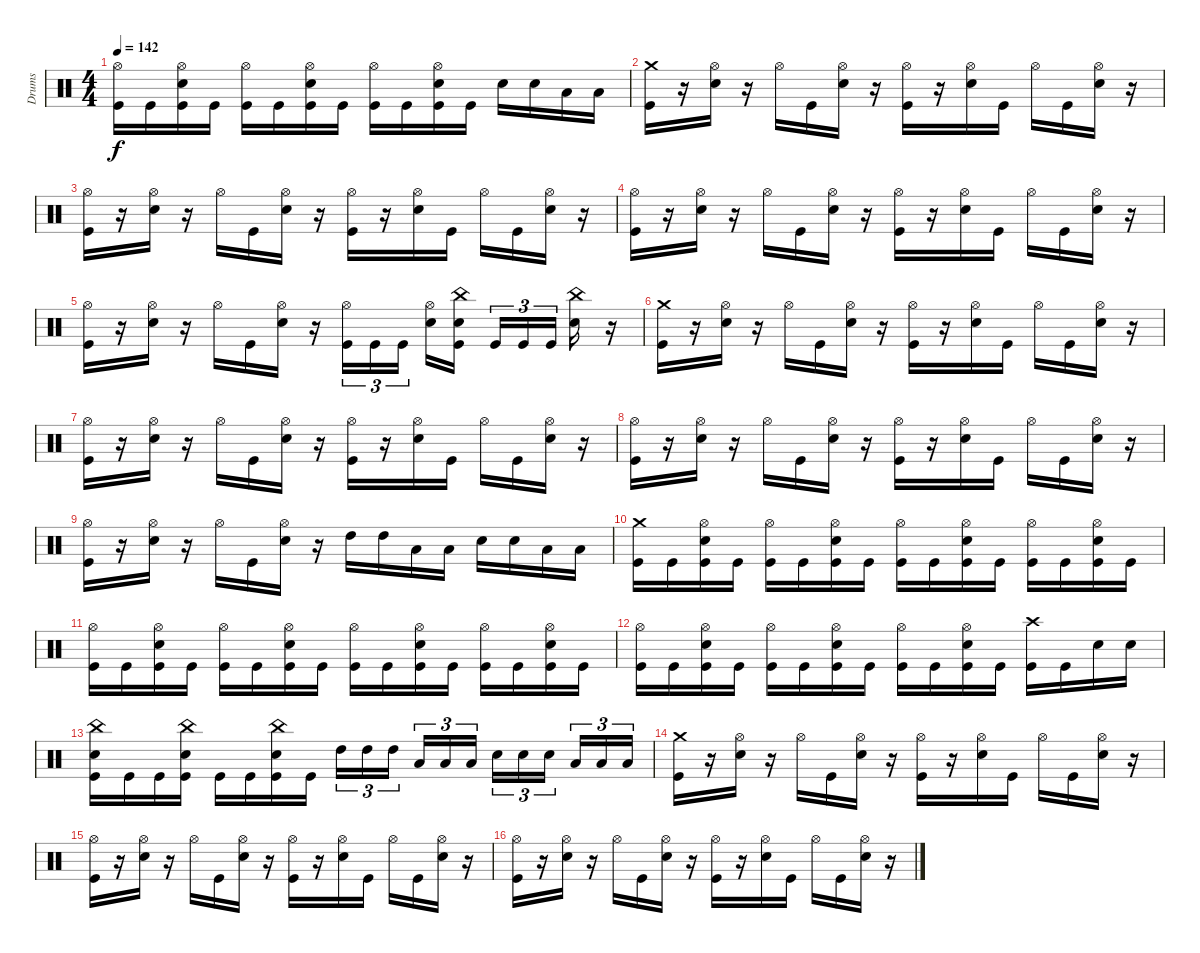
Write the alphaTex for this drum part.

\track ("Drums" "Drums") {instrument percussion}
\staff {score}
\articulation defaults
\ts (4 4)
\tempo 142
\clef neutral
\ks c
("Hi-Hat (open)" "Kick (hit)").16{dy f} "Kick (hit)".16 ("Electric Snare (hit)" "Hi-Hat (open)" "Kick (hit)").16 "Kick (hit)".16 ("Hi-Hat (open)" "Kick (hit)").16 "Kick (hit)".16 ("Electric Snare (hit)" "Hi-Hat (open)" "Kick (hit)").16 "Kick (hit)".16 ("Hi-Hat (open)" "Kick (hit)").16 "Kick (hit)".16 ("Electric Snare (hit)" "Hi-Hat (open)" "Kick (hit)").16 "Kick (hit)".16 "Electric Snare (hit)".16 "Electric Snare (hit)".16 "Low Tom (hit)".16 "Low Tom (hit)".16 |
("Kick (hit)" "Crash medium (hit)").16 r.16 ("Electric Snare (hit)" "Hi-Hat (open)").16 r.16 "Hi-Hat (open)".16 "Kick (hit)".16 ("Electric Snare (hit)" "Hi-Hat (open)").16 r.16 ("Kick (hit)" "Hi-Hat (open)").16 r.16 ("Electric Snare (hit)" "Hi-Hat (open)").16 "Kick (hit)".16 "Hi-Hat (open)".16 "Kick (hit)".16 ("Electric Snare (hit)" "Hi-Hat (open)").16 r.16 |
("Hi-Hat (open)" "Kick (hit)").16 r.16 ("Hi-Hat (open)" "Electric Snare (hit)").16 r.16 "Hi-Hat (open)".16 "Kick (hit)".16 ("Hi-Hat (open)" "Electric Snare (hit)").16 r.16 ("Kick (hit)" "Hi-Hat (open)").16 r.16 ("Hi-Hat (open)" "Electric Snare (hit)").16 "Kick (hit)".16 "Hi-Hat (open)".16 "Kick (hit)".16 ("Hi-Hat (open)" "Electric Snare (hit)").16 r.16 |
("Kick (hit)" "Hi-Hat (open)").16 r.16 ("Electric Snare (hit)" "Hi-Hat (open)").16 r.16 "Hi-Hat (open)".16 "Kick (hit)".16 ("Electric Snare (hit)" "Hi-Hat (open)").16 r.16 ("Kick (hit)" "Hi-Hat (open)").16 r.16 ("Electric Snare (hit)" "Hi-Hat (open)").16 "Kick (hit)".16 "Hi-Hat (open)".16 "Kick (hit)".16 ("Electric Snare (hit)" "Hi-Hat (open)").16 r.16 |
("Hi-Hat (open)" "Kick (hit)").16 r.16 ("Hi-Hat (open)" "Electric Snare (hit)").16 r.16 "Hi-Hat (open)".16 "Kick (hit)".16 ("Hi-Hat (open)" "Electric Snare (hit)").16 r.16 ("Kick (hit)" "Hi-Hat (open)").16{tu (3 2)} "Kick (hit)".16{tu (3 2)} "Kick (hit)".16{tu (3 2)} ("Hi-Hat (open)" "Electric Snare (hit)").16 ("Kick (hit)" "China (hit)" "Electric Snare (hit)").16 "Kick (hit)".16{tu (3 2)} "Kick (hit)".16{tu (3 2)} "Kick (hit)".16{tu (3 2)} ("China (hit)" "Electric Snare (hit)").16 r.16 |
("Kick (hit)" "Crash medium (hit)").16 r.16 ("Electric Snare (hit)" "Hi-Hat (open)").16 r.16 "Hi-Hat (open)".16 "Kick (hit)".16 ("Electric Snare (hit)" "Hi-Hat (open)").16 r.16 ("Kick (hit)" "Hi-Hat (open)").16 r.16 ("Electric Snare (hit)" "Hi-Hat (open)").16 "Kick (hit)".16 "Hi-Hat (open)".16 "Kick (hit)".16 ("Electric Snare (hit)" "Hi-Hat (open)").16 r.16 |
("Hi-Hat (open)" "Kick (hit)").16 r.16 ("Hi-Hat (open)" "Electric Snare (hit)").16 r.16 "Hi-Hat (open)".16 "Kick (hit)".16 ("Hi-Hat (open)" "Electric Snare (hit)").16 r.16 ("Kick (hit)" "Hi-Hat (open)").16 r.16 ("Hi-Hat (open)" "Electric Snare (hit)").16 "Kick (hit)".16 "Hi-Hat (open)".16 "Kick (hit)".16 ("Hi-Hat (open)" "Electric Snare (hit)").16 r.16 |
("Kick (hit)" "Hi-Hat (open)").16 r.16 ("Electric Snare (hit)" "Hi-Hat (open)").16 r.16 "Hi-Hat (open)".16 "Kick (hit)".16 ("Electric Snare (hit)" "Hi-Hat (open)").16 r.16 ("Kick (hit)" "Hi-Hat (open)").16 r.16 ("Electric Snare (hit)" "Hi-Hat (open)").16 "Kick (hit)".16 "Hi-Hat (open)".16 "Kick (hit)".16 ("Electric Snare (hit)" "Hi-Hat (open)").16 r.16 |
("Hi-Hat (open)" "Kick (hit)").16 r.16 ("Hi-Hat (open)" "Electric Snare (hit)").16 r.16 "Hi-Hat (open)".16 "Kick (hit)".16 ("Hi-Hat (open)" "Electric Snare (hit)").16 r.16 "High Tom (hit)".16 "High Tom (hit)".16 "Low Tom (hit)".16 "Low Tom (hit)".16 "Electric Snare (hit)".16 "Electric Snare (hit)".16 "Low Tom (hit)".16 "Low Tom (hit)".16 |
("Crash medium (hit)" "Kick (hit)").16 "Kick (hit)".16 ("Electric Snare (hit)" "Hi-Hat (open)" "Kick (hit)").16 "Kick (hit)".16 ("Hi-Hat (open)" "Kick (hit)").16 "Kick (hit)".16 ("Electric Snare (hit)" "Hi-Hat (open)" "Kick (hit)").16 "Kick (hit)".16 ("Hi-Hat (open)" "Kick (hit)").16 "Kick (hit)".16 ("Electric Snare (hit)" "Hi-Hat (open)" "Kick (hit)").16 "Kick (hit)".16 ("Hi-Hat (open)" "Kick (hit)").16 "Kick (hit)".16 ("Electric Snare (hit)" "Hi-Hat (open)" "Kick (hit)").16 "Kick (hit)".16 |
("Hi-Hat (open)" "Kick (hit)").16 "Kick (hit)".16 ("Electric Snare (hit)" "Hi-Hat (open)" "Kick (hit)").16 "Kick (hit)".16 ("Hi-Hat (open)" "Kick (hit)").16 "Kick (hit)".16 ("Electric Snare (hit)" "Hi-Hat (open)" "Kick (hit)").16 "Kick (hit)".16 ("Hi-Hat (open)" "Kick (hit)").16 "Kick (hit)".16 ("Electric Snare (hit)" "Hi-Hat (open)" "Kick (hit)").16 "Kick (hit)".16 ("Hi-Hat (open)" "Kick (hit)").16 "Kick (hit)".16 ("Electric Snare (hit)" "Hi-Hat (open)" "Kick (hit)").16 "Kick (hit)".16 |
("Hi-Hat (open)" "Kick (hit)").16 "Kick (hit)".16 ("Electric Snare (hit)" "Hi-Hat (open)" "Kick (hit)").16 "Kick (hit)".16 ("Hi-Hat (open)" "Kick (hit)").16 "Kick (hit)".16 ("Electric Snare (hit)" "Hi-Hat (open)" "Kick (hit)").16 "Kick (hit)".16 ("Hi-Hat (open)" "Kick (hit)").16 "Kick (hit)".16 ("Electric Snare (hit)" "Hi-Hat (open)" "Kick (hit)").16 "Kick (hit)".16 ("Crash high (hit)" "Kick (hit)").16 "Kick (hit)".16 "Electric Snare (hit)".16 "Electric Snare (hit)".16 |
("Electric Snare (hit)" "China (hit)" "Kick (hit)").16 "Kick (hit)".16 "Kick (hit)".16 ("China (hit)" "Electric Snare (hit)" "Kick (hit)").16 "Kick (hit)".16 "Kick (hit)".16 ("China (hit)" "Electric Snare (hit)" "Kick (hit)").16 "Kick (hit)".16 "High Tom (hit)".16{tu (3 2)} "High Tom (hit)".16{tu (3 2)} "High Tom (hit)".16{tu (3 2)} "Low Tom (hit)".16{tu (3 2)} "Low Tom (hit)".16{tu (3 2)} "Low Tom (hit)".16{tu (3 2)} "Electric Snare (hit)".16{tu (3 2)} "Electric Snare (hit)".16{tu (3 2)} "Electric Snare (hit)".16{tu (3 2)} "Low Tom (hit)".16{tu (3 2)} "Low Tom (hit)".16{tu (3 2)} "Low Tom (hit)".16{tu (3 2)} |
("Kick (hit)" "Crash medium (hit)").16 r.16 ("Electric Snare (hit)" "Hi-Hat (open)").16 r.16 "Hi-Hat (open)".16 "Kick (hit)".16 ("Electric Snare (hit)" "Hi-Hat (open)").16 r.16 ("Kick (hit)" "Hi-Hat (open)").16 r.16 ("Electric Snare (hit)" "Hi-Hat (open)").16 "Kick (hit)".16 "Hi-Hat (open)".16 "Kick (hit)".16 ("Electric Snare (hit)" "Hi-Hat (open)").16 r.16 |
("Hi-Hat (open)" "Kick (hit)").16 r.16 ("Hi-Hat (open)" "Electric Snare (hit)").16 r.16 "Hi-Hat (open)".16 "Kick (hit)".16 ("Hi-Hat (open)" "Electric Snare (hit)").16 r.16 ("Kick (hit)" "Hi-Hat (open)").16 r.16 ("Hi-Hat (open)" "Electric Snare (hit)").16 "Kick (hit)".16 "Hi-Hat (open)".16 "Kick (hit)".16 ("Hi-Hat (open)" "Electric Snare (hit)").16 r.16 |
("Kick (hit)" "Hi-Hat (open)").16 r.16 ("Electric Snare (hit)" "Hi-Hat (open)").16 r.16 "Hi-Hat (open)".16 "Kick (hit)".16 ("Electric Snare (hit)" "Hi-Hat (open)").16 r.16 ("Kick (hit)" "Hi-Hat (open)").16 r.16 ("Electric Snare (hit)" "Hi-Hat (open)").16 "Kick (hit)".16 "Hi-Hat (open)".16 "Kick (hit)".16 ("Electric Snare (hit)" "Hi-Hat (open)").16 r.16
